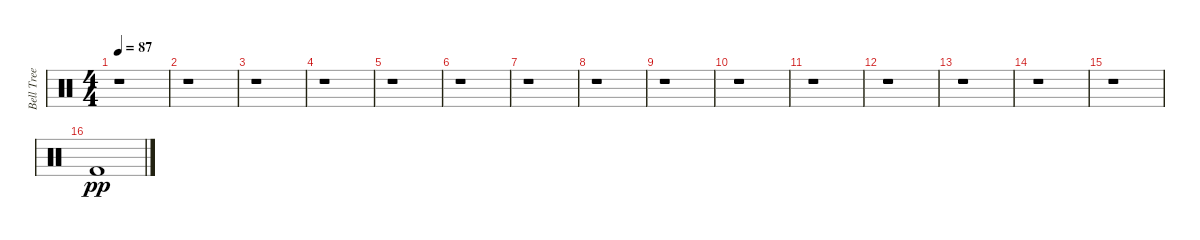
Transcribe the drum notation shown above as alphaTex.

\track ("Bell Tree" "Bell Tree") {instrument percussion}
\staff {score}
\articulation defaults
\ts (4 4)
\tempo 87
\clef neutral
\ks c
r.1{dy pp} |
r.1 |
r.1 |
r.1 |
r.1 |
r.1 |
r.1 |
r.1 |
r.1 |
r.1 |
r.1 |
r.1 |
r.1 |
r.1 |
r.1 |
"Kick (hit) 2".1
